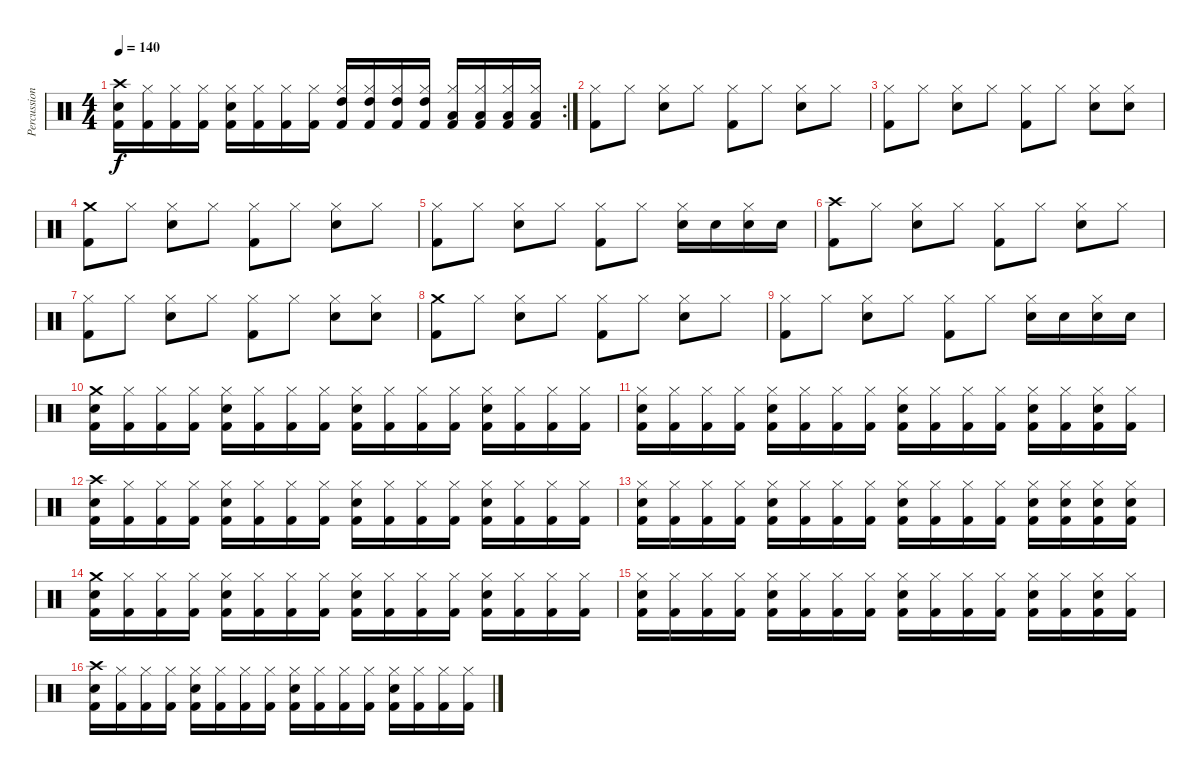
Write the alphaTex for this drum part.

\track ("Percussion" "Percussion") {instrument percussion}
\staff {score}
\articulation defaults
\rc 2
\ts (4 4)
\tempo 140
\clef neutral
\ks c
("Crash high (hit)" "Snare (hit) 2" "Kick (hit) 2").16{dy f} ("Hi-Hat (closed)" "Kick (hit) 2").16 ("Hi-Hat (closed)" "Kick (hit) 2").16 ("Hi-Hat (closed)" "Kick (hit) 2").16 ("Hi-Hat (closed)" "Snare (hit) 2" "Kick (hit) 2").16 ("Hi-Hat (closed)" "Kick (hit) 2").16 ("Hi-Hat (closed)" "Kick (hit) 2").16 ("Hi-Hat (closed)" "Kick (hit) 2").16 ("Hi-Hat (closed)" "High Tom (hit)" "Kick (hit) 2").16 ("Hi-Hat (closed)" "High Tom (hit)" "Kick (hit) 2").16 ("Hi-Hat (closed)" "High Tom (hit)" "Kick (hit) 2").16 ("Hi-Hat (closed)" "High Tom (hit)" "Kick (hit) 2").16 ("Hi-Hat (closed)" "Low Tom (hit)" "Kick (hit) 2").16 ("Hi-Hat (closed)" "Low Tom (hit)" "Kick (hit) 2").16 ("Hi-Hat (closed)" "Low Tom (hit)" "Kick (hit) 2").16 ("Hi-Hat (closed)" "Low Tom (hit)" "Kick (hit) 2").16 |
("Hi-Hat (closed)" "Kick (hit) 2").8 "Hi-Hat (closed)".8 ("Hi-Hat (closed)" "Snare (hit) 2").8 "Hi-Hat (closed)".8 ("Hi-Hat (closed)" "Kick (hit) 2").8 "Hi-Hat (closed)".8 ("Hi-Hat (closed)" "Snare (hit) 2").8 "Hi-Hat (closed)".8 |
("Hi-Hat (closed)" "Kick (hit) 2").8 "Hi-Hat (closed)".8 ("Hi-Hat (closed)" "Snare (hit) 2").8 "Hi-Hat (closed)".8 ("Hi-Hat (closed)" "Kick (hit) 2").8 "Hi-Hat (closed)".8 ("Hi-Hat (closed)" "Snare (hit) 2").8 ("Hi-Hat (closed)" "Snare (hit) 2").8 |
("Crash medium (hit)" "Kick (hit) 2").8 "Hi-Hat (closed)".8 ("Hi-Hat (closed)" "Snare (hit) 2").8 "Hi-Hat (closed)".8 ("Hi-Hat (closed)" "Kick (hit) 2").8 "Hi-Hat (closed)".8 ("Hi-Hat (closed)" "Snare (hit) 2").8 "Hi-Hat (closed)".8 |
("Hi-Hat (closed)" "Kick (hit) 2").8 "Hi-Hat (closed)".8 ("Hi-Hat (closed)" "Snare (hit) 2").8 "Hi-Hat (closed)".8 ("Hi-Hat (closed)" "Kick (hit) 2").8 "Hi-Hat (closed)".8 ("Hi-Hat (closed)" "Snare (hit) 2").16 "Snare (hit) 2".16 ("Hi-Hat (closed)" "Snare (hit) 2").16 "Snare (hit) 2".16 |
("Crash high (hit)" "Kick (hit) 2").8 "Hi-Hat (closed)".8 ("Hi-Hat (closed)" "Snare (hit) 2").8 "Hi-Hat (closed)".8 ("Hi-Hat (closed)" "Kick (hit) 2").8 "Hi-Hat (closed)".8 ("Hi-Hat (closed)" "Snare (hit) 2").8 "Hi-Hat (closed)".8 |
("Hi-Hat (closed)" "Kick (hit) 2").8 "Hi-Hat (closed)".8 ("Hi-Hat (closed)" "Snare (hit) 2").8 "Hi-Hat (closed)".8 ("Hi-Hat (closed)" "Kick (hit) 2").8 "Hi-Hat (closed)".8 ("Hi-Hat (closed)" "Snare (hit) 2").8 ("Hi-Hat (closed)" "Snare (hit) 2").8 |
("Crash medium (hit)" "Kick (hit) 2").8 "Hi-Hat (closed)".8 ("Hi-Hat (closed)" "Snare (hit) 2").8 "Hi-Hat (closed)".8 ("Hi-Hat (closed)" "Kick (hit) 2").8 "Hi-Hat (closed)".8 ("Hi-Hat (closed)" "Snare (hit) 2").8 "Hi-Hat (closed)".8 |
("Hi-Hat (closed)" "Kick (hit) 2").8 "Hi-Hat (closed)".8 ("Hi-Hat (closed)" "Snare (hit) 2").8 "Hi-Hat (closed)".8 ("Hi-Hat (closed)" "Kick (hit) 2").8 "Hi-Hat (closed)".8 ("Hi-Hat (closed)" "Snare (hit) 2").16 "Snare (hit) 2".16 ("Hi-Hat (closed)" "Snare (hit) 2").16 "Snare (hit) 2".16 |
("Crash medium (hit)" "Snare (hit) 2" "Kick (hit) 2").16 ("Hi-Hat (closed)" "Kick (hit) 2").16 ("Hi-Hat (closed)" "Kick (hit) 2").16 ("Hi-Hat (closed)" "Kick (hit) 2").16 ("Hi-Hat (closed)" "Snare (hit) 2" "Kick (hit) 2").16 ("Hi-Hat (closed)" "Kick (hit) 2").16 ("Hi-Hat (closed)" "Kick (hit) 2").16 ("Hi-Hat (closed)" "Kick (hit) 2").16 ("Hi-Hat (closed)" "Snare (hit) 2" "Kick (hit) 2").16 ("Hi-Hat (closed)" "Kick (hit) 2").16 ("Hi-Hat (closed)" "Kick (hit) 2").16 ("Hi-Hat (closed)" "Kick (hit) 2").16 ("Hi-Hat (closed)" "Snare (hit) 2" "Kick (hit) 2").16 ("Hi-Hat (closed)" "Kick (hit) 2").16 ("Hi-Hat (closed)" "Kick (hit) 2").16 ("Hi-Hat (closed)" "Kick (hit) 2").16 |
("Hi-Hat (closed)" "Snare (hit) 2" "Kick (hit) 2").16 ("Hi-Hat (closed)" "Kick (hit) 2").16 ("Hi-Hat (closed)" "Kick (hit) 2").16 ("Hi-Hat (closed)" "Kick (hit) 2").16 ("Hi-Hat (closed)" "Snare (hit) 2" "Kick (hit) 2").16 ("Hi-Hat (closed)" "Kick (hit) 2").16 ("Hi-Hat (closed)" "Kick (hit) 2").16 ("Hi-Hat (closed)" "Kick (hit) 2").16 ("Hi-Hat (closed)" "Snare (hit) 2" "Kick (hit) 2").16 ("Hi-Hat (closed)" "Kick (hit) 2").16 ("Hi-Hat (closed)" "Kick (hit) 2").16 ("Hi-Hat (closed)" "Kick (hit) 2").16 ("Hi-Hat (closed)" "Snare (hit) 2" "Kick (hit) 2").16 ("Hi-Hat (closed)" "Kick (hit) 2").16 ("Hi-Hat (closed)" "Snare (hit) 2" "Kick (hit) 2").16 ("Hi-Hat (closed)" "Kick (hit) 2").16 |
("Crash high (hit)" "Snare (hit) 2" "Kick (hit) 2").16 ("Hi-Hat (closed)" "Kick (hit) 2").16 ("Hi-Hat (closed)" "Kick (hit) 2").16 ("Hi-Hat (closed)" "Kick (hit) 2").16 ("Hi-Hat (closed)" "Snare (hit) 2" "Kick (hit) 2").16 ("Hi-Hat (closed)" "Kick (hit) 2").16 ("Hi-Hat (closed)" "Kick (hit) 2").16 ("Hi-Hat (closed)" "Kick (hit) 2").16 ("Hi-Hat (closed)" "Snare (hit) 2" "Kick (hit) 2").16 ("Hi-Hat (closed)" "Kick (hit) 2").16 ("Hi-Hat (closed)" "Kick (hit) 2").16 ("Hi-Hat (closed)" "Kick (hit) 2").16 ("Hi-Hat (closed)" "Snare (hit) 2" "Kick (hit) 2").16 ("Hi-Hat (closed)" "Kick (hit) 2").16 ("Hi-Hat (closed)" "Kick (hit) 2").16 ("Hi-Hat (closed)" "Kick (hit) 2").16 |
("Hi-Hat (closed)" "Snare (hit) 2" "Kick (hit) 2").16 ("Hi-Hat (closed)" "Kick (hit) 2").16 ("Hi-Hat (closed)" "Kick (hit) 2").16 ("Hi-Hat (closed)" "Kick (hit) 2").16 ("Hi-Hat (closed)" "Snare (hit) 2" "Kick (hit) 2").16 ("Hi-Hat (closed)" "Kick (hit) 2").16 ("Hi-Hat (closed)" "Kick (hit) 2").16 ("Hi-Hat (closed)" "Kick (hit) 2").16 ("Hi-Hat (closed)" "Snare (hit) 2" "Kick (hit) 2").16 ("Hi-Hat (closed)" "Kick (hit) 2").16 ("Hi-Hat (closed)" "Kick (hit) 2").16 ("Hi-Hat (closed)" "Kick (hit) 2").16 ("Hi-Hat (closed)" "Snare (hit) 2" "Kick (hit) 2").16 ("Hi-Hat (closed)" "Snare (hit) 2" "Kick (hit) 2").16 ("Hi-Hat (closed)" "Snare (hit) 2" "Kick (hit) 2").16 ("Hi-Hat (closed)" "Snare (hit) 2" "Kick (hit) 2").16 |
("Crash medium (hit)" "Snare (hit) 2" "Kick (hit) 2").16 ("Hi-Hat (closed)" "Kick (hit) 2").16 ("Hi-Hat (closed)" "Kick (hit) 2").16 ("Hi-Hat (closed)" "Kick (hit) 2").16 ("Hi-Hat (closed)" "Snare (hit) 2" "Kick (hit) 2").16 ("Hi-Hat (closed)" "Kick (hit) 2").16 ("Hi-Hat (closed)" "Kick (hit) 2").16 ("Hi-Hat (closed)" "Kick (hit) 2").16 ("Hi-Hat (closed)" "Snare (hit) 2" "Kick (hit) 2").16 ("Hi-Hat (closed)" "Kick (hit) 2").16 ("Hi-Hat (closed)" "Kick (hit) 2").16 ("Hi-Hat (closed)" "Kick (hit) 2").16 ("Hi-Hat (closed)" "Snare (hit) 2" "Kick (hit) 2").16 ("Hi-Hat (closed)" "Kick (hit) 2").16 ("Hi-Hat (closed)" "Kick (hit) 2").16 ("Hi-Hat (closed)" "Kick (hit) 2").16 |
("Hi-Hat (closed)" "Snare (hit) 2" "Kick (hit) 2").16 ("Hi-Hat (closed)" "Kick (hit) 2").16 ("Hi-Hat (closed)" "Kick (hit) 2").16 ("Hi-Hat (closed)" "Kick (hit) 2").16 ("Hi-Hat (closed)" "Snare (hit) 2" "Kick (hit) 2").16 ("Hi-Hat (closed)" "Kick (hit) 2").16 ("Hi-Hat (closed)" "Kick (hit) 2").16 ("Hi-Hat (closed)" "Kick (hit) 2").16 ("Hi-Hat (closed)" "Snare (hit) 2" "Kick (hit) 2").16 ("Hi-Hat (closed)" "Kick (hit) 2").16 ("Hi-Hat (closed)" "Kick (hit) 2").16 ("Hi-Hat (closed)" "Kick (hit) 2").16 ("Hi-Hat (closed)" "Snare (hit) 2" "Kick (hit) 2").16 ("Hi-Hat (closed)" "Kick (hit) 2").16 ("Hi-Hat (closed)" "Snare (hit) 2" "Kick (hit) 2").16 ("Hi-Hat (closed)" "Kick (hit) 2").16 |
("Crash high (hit)" "Snare (hit) 2" "Kick (hit) 2").16 ("Hi-Hat (closed)" "Kick (hit) 2").16 ("Hi-Hat (closed)" "Kick (hit) 2").16 ("Hi-Hat (closed)" "Kick (hit) 2").16 ("Hi-Hat (closed)" "Snare (hit) 2" "Kick (hit) 2").16 ("Hi-Hat (closed)" "Kick (hit) 2").16 ("Hi-Hat (closed)" "Kick (hit) 2").16 ("Hi-Hat (closed)" "Kick (hit) 2").16 ("Hi-Hat (closed)" "Snare (hit) 2" "Kick (hit) 2").16 ("Hi-Hat (closed)" "Kick (hit) 2").16 ("Hi-Hat (closed)" "Kick (hit) 2").16 ("Hi-Hat (closed)" "Kick (hit) 2").16 ("Hi-Hat (closed)" "Snare (hit) 2" "Kick (hit) 2").16 ("Hi-Hat (closed)" "Kick (hit) 2").16 ("Hi-Hat (closed)" "Kick (hit) 2").16 ("Hi-Hat (closed)" "Kick (hit) 2").16
